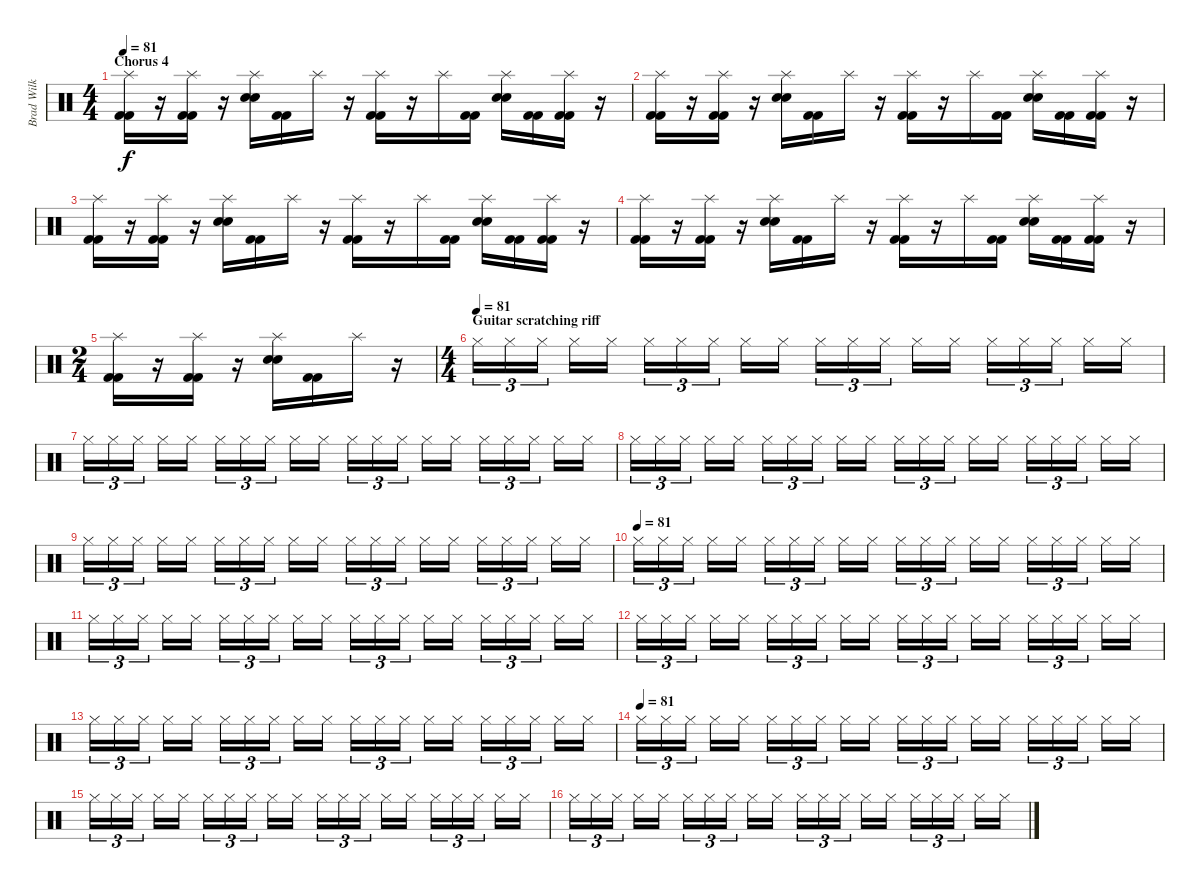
\track ("Brad Wilk" "Brad Wilk") {instrument percussion}
\staff {score}
\articulation defaults
\ts (4 4)
\section ("" "Chorus 4")
\tempo 81
\clef neutral
\ks c
("Splash (hit)" "Kick (hit) 2" "Kick (hit) 2").16{dy f} r.16 ("Splash (hit)" "Kick (hit) 2" "Kick (hit) 2").16 r.16 ("Splash (hit)" "Electric Snare (hit)" "Electric Snare (hit)").16 ("Kick (hit) 2" "Kick (hit) 2").16 "Splash (hit)".16 r.16 ("Splash (hit)" "Kick (hit) 2" "Kick (hit) 2").16 r.16 "Splash (hit)".16 ("Kick (hit) 2" "Kick (hit) 2").16 ("Splash (hit)" "Electric Snare (hit)" "Electric Snare (hit)").16 ("Kick (hit) 2" "Kick (hit) 2").16 ("Splash (hit)" "Kick (hit) 2" "Kick (hit) 2").16 r.16 |
("Splash (hit)" "Kick (hit) 2" "Kick (hit) 2").16 r.16 ("Splash (hit)" "Kick (hit) 2" "Kick (hit) 2").16 r.16 ("Splash (hit)" "Electric Snare (hit)" "Electric Snare (hit)").16 ("Kick (hit) 2" "Kick (hit) 2").16 "Splash (hit)".16 r.16 ("Splash (hit)" "Kick (hit) 2" "Kick (hit) 2").16 r.16 "Splash (hit)".16 ("Kick (hit) 2" "Kick (hit) 2").16 ("Splash (hit)" "Electric Snare (hit)" "Electric Snare (hit)").16 ("Kick (hit) 2" "Kick (hit) 2").16 ("Splash (hit)" "Kick (hit) 2" "Kick (hit) 2").16 r.16 |
("Splash (hit)" "Kick (hit) 2" "Kick (hit) 2").16 r.16 ("Splash (hit)" "Kick (hit) 2" "Kick (hit) 2").16 r.16 ("Splash (hit)" "Electric Snare (hit)" "Electric Snare (hit)").16 ("Kick (hit) 2" "Kick (hit) 2").16 "Splash (hit)".16 r.16 ("Splash (hit)" "Kick (hit) 2" "Kick (hit) 2").16 r.16 "Splash (hit)".16 ("Kick (hit) 2" "Kick (hit) 2").16 ("Splash (hit)" "Electric Snare (hit)" "Electric Snare (hit)").16 ("Kick (hit) 2" "Kick (hit) 2").16 ("Splash (hit)" "Kick (hit) 2" "Kick (hit) 2").16 r.16 |
("Splash (hit)" "Kick (hit) 2" "Kick (hit) 2").16 r.16 ("Splash (hit)" "Kick (hit) 2" "Kick (hit) 2").16 r.16 ("Splash (hit)" "Electric Snare (hit)" "Electric Snare (hit)").16 ("Kick (hit) 2" "Kick (hit) 2").16 "Splash (hit)".16 r.16 ("Splash (hit)" "Kick (hit) 2" "Kick (hit) 2").16 r.16 "Splash (hit)".16 ("Kick (hit) 2" "Kick (hit) 2").16 ("Splash (hit)" "Electric Snare (hit)" "Electric Snare (hit)").16 ("Kick (hit) 2" "Kick (hit) 2").16 ("Splash (hit)" "Kick (hit) 2" "Kick (hit) 2").16 r.16 |
\ts (2 4)
("Splash (hit)" "Kick (hit) 2" "Kick (hit) 2").16 r.16 ("Splash (hit)" "Kick (hit) 2" "Kick (hit) 2").16 r.16 ("Splash (hit)" "Electric Snare (hit)" "Electric Snare (hit)").16 ("Kick (hit) 2" "Kick (hit) 2").16 "Splash (hit)".16 r.16 |
\ts (4 4)
\section ("" "Guitar scratching riff")
\tempo (81)
"Hi-Hat (closed)".16{tu (3 2)} "Hi-Hat (closed)".16{tu (3 2)} "Hi-Hat (closed)".16{tu (3 2)} "Hi-Hat (closed)".16 "Hi-Hat (closed)".16 "Hi-Hat (closed)".16{tu (3 2)} "Hi-Hat (closed)".16{tu (3 2)} "Hi-Hat (closed)".16{tu (3 2)} "Hi-Hat (closed)".16 "Hi-Hat (closed)".16 "Hi-Hat (closed)".16{tu (3 2)} "Hi-Hat (closed)".16{tu (3 2)} "Hi-Hat (closed)".16{tu (3 2)} "Hi-Hat (closed)".16 "Hi-Hat (closed)".16 "Hi-Hat (closed)".16{tu (3 2)} "Hi-Hat (closed)".16{tu (3 2)} "Hi-Hat (closed)".16{tu (3 2)} "Hi-Hat (closed)".16 "Hi-Hat (closed)".16 |
"Hi-Hat (closed)".16{tu (3 2)} "Hi-Hat (closed)".16{tu (3 2)} "Hi-Hat (closed)".16{tu (3 2)} "Hi-Hat (closed)".16 "Hi-Hat (closed)".16 "Hi-Hat (closed)".16{tu (3 2)} "Hi-Hat (closed)".16{tu (3 2)} "Hi-Hat (closed)".16{tu (3 2)} "Hi-Hat (closed)".16 "Hi-Hat (closed)".16 "Hi-Hat (closed)".16{tu (3 2)} "Hi-Hat (closed)".16{tu (3 2)} "Hi-Hat (closed)".16{tu (3 2)} "Hi-Hat (closed)".16 "Hi-Hat (closed)".16 "Hi-Hat (closed)".16{tu (3 2)} "Hi-Hat (closed)".16{tu (3 2)} "Hi-Hat (closed)".16{tu (3 2)} "Hi-Hat (closed)".16 "Hi-Hat (closed)".16 |
"Hi-Hat (closed)".16{tu (3 2)} "Hi-Hat (closed)".16{tu (3 2)} "Hi-Hat (closed)".16{tu (3 2)} "Hi-Hat (closed)".16 "Hi-Hat (closed)".16 "Hi-Hat (closed)".16{tu (3 2)} "Hi-Hat (closed)".16{tu (3 2)} "Hi-Hat (closed)".16{tu (3 2)} "Hi-Hat (closed)".16 "Hi-Hat (closed)".16 "Hi-Hat (closed)".16{tu (3 2)} "Hi-Hat (closed)".16{tu (3 2)} "Hi-Hat (closed)".16{tu (3 2)} "Hi-Hat (closed)".16 "Hi-Hat (closed)".16 "Hi-Hat (closed)".16{tu (3 2)} "Hi-Hat (closed)".16{tu (3 2)} "Hi-Hat (closed)".16{tu (3 2)} "Hi-Hat (closed)".16 "Hi-Hat (closed)".16 |
"Hi-Hat (closed)".16{tu (3 2)} "Hi-Hat (closed)".16{tu (3 2)} "Hi-Hat (closed)".16{tu (3 2)} "Hi-Hat (closed)".16 "Hi-Hat (closed)".16 "Hi-Hat (closed)".16{tu (3 2)} "Hi-Hat (closed)".16{tu (3 2)} "Hi-Hat (closed)".16{tu (3 2)} "Hi-Hat (closed)".16 "Hi-Hat (closed)".16 "Hi-Hat (closed)".16{tu (3 2)} "Hi-Hat (closed)".16{tu (3 2)} "Hi-Hat (closed)".16{tu (3 2)} "Hi-Hat (closed)".16 "Hi-Hat (closed)".16 "Hi-Hat (closed)".16{tu (3 2)} "Hi-Hat (closed)".16{tu (3 2)} "Hi-Hat (closed)".16{tu (3 2)} "Hi-Hat (closed)".16 "Hi-Hat (closed)".16 |
\tempo (81)
"Hi-Hat (closed)".16{tu (3 2)} "Hi-Hat (closed)".16{tu (3 2)} "Hi-Hat (closed)".16{tu (3 2)} "Hi-Hat (closed)".16 "Hi-Hat (closed)".16 "Hi-Hat (closed)".16{tu (3 2)} "Hi-Hat (closed)".16{tu (3 2)} "Hi-Hat (closed)".16{tu (3 2)} "Hi-Hat (closed)".16 "Hi-Hat (closed)".16 "Hi-Hat (closed)".16{tu (3 2)} "Hi-Hat (closed)".16{tu (3 2)} "Hi-Hat (closed)".16{tu (3 2)} "Hi-Hat (closed)".16 "Hi-Hat (closed)".16 "Hi-Hat (closed)".16{tu (3 2)} "Hi-Hat (closed)".16{tu (3 2)} "Hi-Hat (closed)".16{tu (3 2)} "Hi-Hat (closed)".16 "Hi-Hat (closed)".16 |
"Hi-Hat (closed)".16{tu (3 2)} "Hi-Hat (closed)".16{tu (3 2)} "Hi-Hat (closed)".16{tu (3 2)} "Hi-Hat (closed)".16 "Hi-Hat (closed)".16 "Hi-Hat (closed)".16{tu (3 2)} "Hi-Hat (closed)".16{tu (3 2)} "Hi-Hat (closed)".16{tu (3 2)} "Hi-Hat (closed)".16 "Hi-Hat (closed)".16 "Hi-Hat (closed)".16{tu (3 2)} "Hi-Hat (closed)".16{tu (3 2)} "Hi-Hat (closed)".16{tu (3 2)} "Hi-Hat (closed)".16 "Hi-Hat (closed)".16 "Hi-Hat (closed)".16{tu (3 2)} "Hi-Hat (closed)".16{tu (3 2)} "Hi-Hat (closed)".16{tu (3 2)} "Hi-Hat (closed)".16 "Hi-Hat (closed)".16 |
"Hi-Hat (closed)".16{tu (3 2)} "Hi-Hat (closed)".16{tu (3 2)} "Hi-Hat (closed)".16{tu (3 2)} "Hi-Hat (closed)".16 "Hi-Hat (closed)".16 "Hi-Hat (closed)".16{tu (3 2)} "Hi-Hat (closed)".16{tu (3 2)} "Hi-Hat (closed)".16{tu (3 2)} "Hi-Hat (closed)".16 "Hi-Hat (closed)".16 "Hi-Hat (closed)".16{tu (3 2)} "Hi-Hat (closed)".16{tu (3 2)} "Hi-Hat (closed)".16{tu (3 2)} "Hi-Hat (closed)".16 "Hi-Hat (closed)".16 "Hi-Hat (closed)".16{tu (3 2)} "Hi-Hat (closed)".16{tu (3 2)} "Hi-Hat (closed)".16{tu (3 2)} "Hi-Hat (closed)".16 "Hi-Hat (closed)".16 |
"Hi-Hat (closed)".16{tu (3 2)} "Hi-Hat (closed)".16{tu (3 2)} "Hi-Hat (closed)".16{tu (3 2)} "Hi-Hat (closed)".16 "Hi-Hat (closed)".16 "Hi-Hat (closed)".16{tu (3 2)} "Hi-Hat (closed)".16{tu (3 2)} "Hi-Hat (closed)".16{tu (3 2)} "Hi-Hat (closed)".16 "Hi-Hat (closed)".16 "Hi-Hat (closed)".16{tu (3 2)} "Hi-Hat (closed)".16{tu (3 2)} "Hi-Hat (closed)".16{tu (3 2)} "Hi-Hat (closed)".16 "Hi-Hat (closed)".16 "Hi-Hat (closed)".16{tu (3 2)} "Hi-Hat (closed)".16{tu (3 2)} "Hi-Hat (closed)".16{tu (3 2)} "Hi-Hat (closed)".16 "Hi-Hat (closed)".16 |
\tempo (81)
"Hi-Hat (closed)".16{tu (3 2)} "Hi-Hat (closed)".16{tu (3 2)} "Hi-Hat (closed)".16{tu (3 2)} "Hi-Hat (closed)".16 "Hi-Hat (closed)".16 "Hi-Hat (closed)".16{tu (3 2)} "Hi-Hat (closed)".16{tu (3 2)} "Hi-Hat (closed)".16{tu (3 2)} "Hi-Hat (closed)".16 "Hi-Hat (closed)".16 "Hi-Hat (closed)".16{tu (3 2)} "Hi-Hat (closed)".16{tu (3 2)} "Hi-Hat (closed)".16{tu (3 2)} "Hi-Hat (closed)".16 "Hi-Hat (closed)".16 "Hi-Hat (closed)".16{tu (3 2)} "Hi-Hat (closed)".16{tu (3 2)} "Hi-Hat (closed)".16{tu (3 2)} "Hi-Hat (closed)".16 "Hi-Hat (closed)".16 |
"Hi-Hat (closed)".16{tu (3 2)} "Hi-Hat (closed)".16{tu (3 2)} "Hi-Hat (closed)".16{tu (3 2)} "Hi-Hat (closed)".16 "Hi-Hat (closed)".16 "Hi-Hat (closed)".16{tu (3 2)} "Hi-Hat (closed)".16{tu (3 2)} "Hi-Hat (closed)".16{tu (3 2)} "Hi-Hat (closed)".16 "Hi-Hat (closed)".16 "Hi-Hat (closed)".16{tu (3 2)} "Hi-Hat (closed)".16{tu (3 2)} "Hi-Hat (closed)".16{tu (3 2)} "Hi-Hat (closed)".16 "Hi-Hat (closed)".16 "Hi-Hat (closed)".16{tu (3 2)} "Hi-Hat (closed)".16{tu (3 2)} "Hi-Hat (closed)".16{tu (3 2)} "Hi-Hat (closed)".16 "Hi-Hat (closed)".16 |
"Hi-Hat (closed)".16{tu (3 2)} "Hi-Hat (closed)".16{tu (3 2)} "Hi-Hat (closed)".16{tu (3 2)} "Hi-Hat (closed)".16 "Hi-Hat (closed)".16 "Hi-Hat (closed)".16{tu (3 2)} "Hi-Hat (closed)".16{tu (3 2)} "Hi-Hat (closed)".16{tu (3 2)} "Hi-Hat (closed)".16 "Hi-Hat (closed)".16 "Hi-Hat (closed)".16{tu (3 2)} "Hi-Hat (closed)".16{tu (3 2)} "Hi-Hat (closed)".16{tu (3 2)} "Hi-Hat (closed)".16 "Hi-Hat (closed)".16 "Hi-Hat (closed)".16{tu (3 2)} "Hi-Hat (closed)".16{tu (3 2)} "Hi-Hat (closed)".16{tu (3 2)} "Hi-Hat (closed)".16 "Hi-Hat (closed)".16
